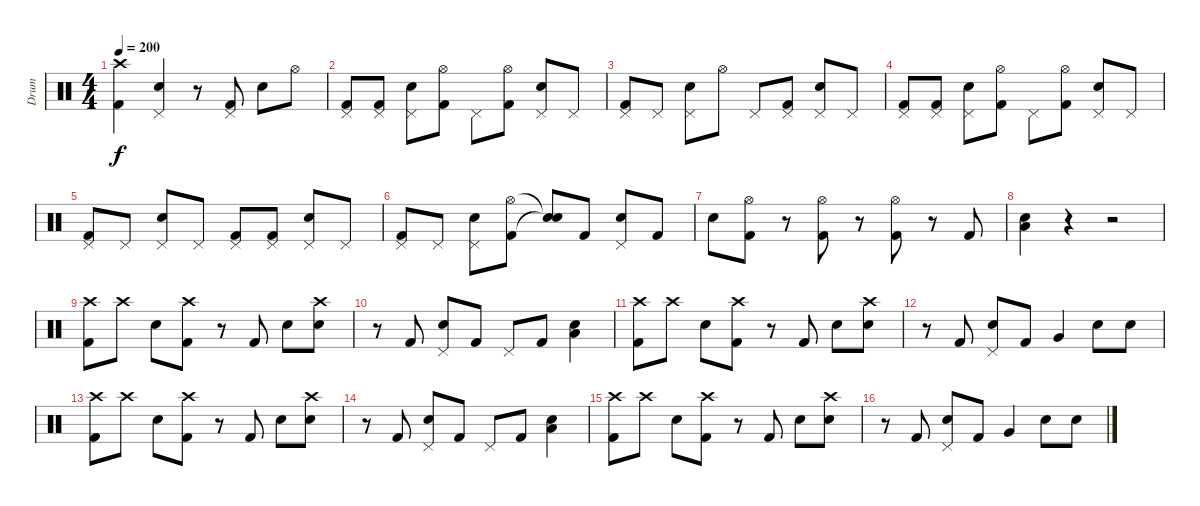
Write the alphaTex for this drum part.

\track ("Drum" "Drum") {instrument percussion}
\staff {score}
\articulation defaults
\ts (4 4)
\tempo 200
\clef neutral
\ks c
("Crash high (hit)" "Kick (hit) 2").4{dy f} ("Pedal Hi-Hat (hit)" "Electric Snare (hit)").4 r.8 ("Pedal Hi-Hat (hit)" "Kick (hit) 2").8 "Electric Snare (hit)".8 "Hi-Hat (open)".8 |
("Pedal Hi-Hat (hit)" "Kick (hit) 2").8 ("Pedal Hi-Hat (hit)" "Kick (hit) 2").8 ("Pedal Hi-Hat (hit)" "Electric Snare (hit)").8 ("Hi-Hat (open)" "Kick (hit) 2").8 "Pedal Hi-Hat (hit)".8 ("Hi-Hat (open)" "Kick (hit) 2").8 ("Pedal Hi-Hat (hit)" "Electric Snare (hit)").8 "Pedal Hi-Hat (hit)".8 |
("Pedal Hi-Hat (hit)" "Kick (hit) 2").8 "Pedal Hi-Hat (hit)".8 ("Pedal Hi-Hat (hit)" "Electric Snare (hit)").8 "Hi-Hat (open)".8 "Pedal Hi-Hat (hit)".8 ("Pedal Hi-Hat (hit)" "Kick (hit) 2").8 ("Pedal Hi-Hat (hit)" "Electric Snare (hit)").8 "Pedal Hi-Hat (hit)".8 |
("Pedal Hi-Hat (hit)" "Kick (hit) 2").8 ("Pedal Hi-Hat (hit)" "Kick (hit) 2").8 ("Pedal Hi-Hat (hit)" "Electric Snare (hit)").8 ("Hi-Hat (open)" "Kick (hit) 2").8 "Pedal Hi-Hat (hit)".8 ("Hi-Hat (open)" "Kick (hit) 2").8 ("Pedal Hi-Hat (hit)" "Electric Snare (hit)").8 "Pedal Hi-Hat (hit)".8 |
("Pedal Hi-Hat (hit)" "Kick (hit) 2").8 "Pedal Hi-Hat (hit)".8 ("Pedal Hi-Hat (hit)" "Electric Snare (hit)").8 "Pedal Hi-Hat (hit)".8 ("Pedal Hi-Hat (hit)" "Kick (hit) 2").8 ("Pedal Hi-Hat (hit)" "Kick (hit) 2").8 ("Pedal Hi-Hat (hit)" "Electric Snare (hit)").8 "Pedal Hi-Hat (hit)".8 |
("Pedal Hi-Hat (hit)" "Kick (hit) 2").8 "Pedal Hi-Hat (hit)".8 ("Pedal Hi-Hat (hit)" "Electric Snare (hit)").8 ("Hi-Hat (open)" "Kick (hit) 2").8 ("Snare (hit)"{t} "Snare (hit)"{t}).8 "Kick (hit) 2".8 ("Pedal Hi-Hat (hit)" "Electric Snare (hit)").8 "Kick (hit) 2".8 |
"Electric Snare (hit)".8 ("Hi-Hat (open)" "Kick (hit) 2").8 r.8 ("Hi-Hat (open)" "Kick (hit) 2").8 r.8 ("Hi-Hat (open)" "Kick (hit) 2").8 r.8 "Kick (hit) 2".8 |
("Low Tom (hit)" "Electric Snare (hit)").4 r.4 r.2 |
("Crash high (hit)" "Kick (hit) 2").8 "Crash high (hit)".8 "Electric Snare (hit)".8 ("Crash high (hit)" "Kick (hit) 2").8 r.8 "Kick (hit) 2".8 "Electric Snare (hit)".8 ("Crash high (hit)" "Electric Snare (hit)").8 |
r.8 "Kick (hit) 2".8 ("Pedal Hi-Hat (hit)" "Electric Snare (hit)").8 "Kick (hit) 2".8 "Pedal Hi-Hat (hit)".8 "Kick (hit) 2".8 ("Electric Snare (hit)" "Low Floor Tom (hit)").4 |
("Crash high (hit)" "Kick (hit) 2").8 "Crash high (hit)".8 "Electric Snare (hit)".8 ("Crash high (hit)" "Kick (hit) 2").8 r.8 "Kick (hit) 2".8 "Electric Snare (hit)".8 ("Crash high (hit)" "Electric Snare (hit)").8 |
r.8 "Kick (hit) 2".8 ("Pedal Hi-Hat (hit)" "Electric Snare (hit)").8 "Kick (hit) 2".8 "Very Low Tom (hit)".4 "Electric Snare (hit)".8 "Electric Snare (hit)".8 |
("Crash high (hit)" "Kick (hit) 2").8 "Crash high (hit)".8 "Electric Snare (hit)".8 ("Crash high (hit)" "Kick (hit) 2").8 r.8 "Kick (hit) 2".8 "Electric Snare (hit)".8 ("Crash high (hit)" "Electric Snare (hit)").8 |
r.8 "Kick (hit) 2".8 ("Pedal Hi-Hat (hit)" "Electric Snare (hit)").8 "Kick (hit) 2".8 "Pedal Hi-Hat (hit)".8 "Kick (hit) 2".8 ("Electric Snare (hit)" "Low Floor Tom (hit)").4 |
("Crash high (hit)" "Kick (hit) 2").8 "Crash high (hit)".8 "Electric Snare (hit)".8 ("Crash high (hit)" "Kick (hit) 2").8 r.8 "Kick (hit) 2".8 "Electric Snare (hit)".8 ("Crash high (hit)" "Electric Snare (hit)").8 |
r.8 "Kick (hit) 2".8 ("Pedal Hi-Hat (hit)" "Electric Snare (hit)").8 "Kick (hit) 2".8 "Very Low Tom (hit)".4 "Electric Snare (hit)".8 "Electric Snare (hit)".8
